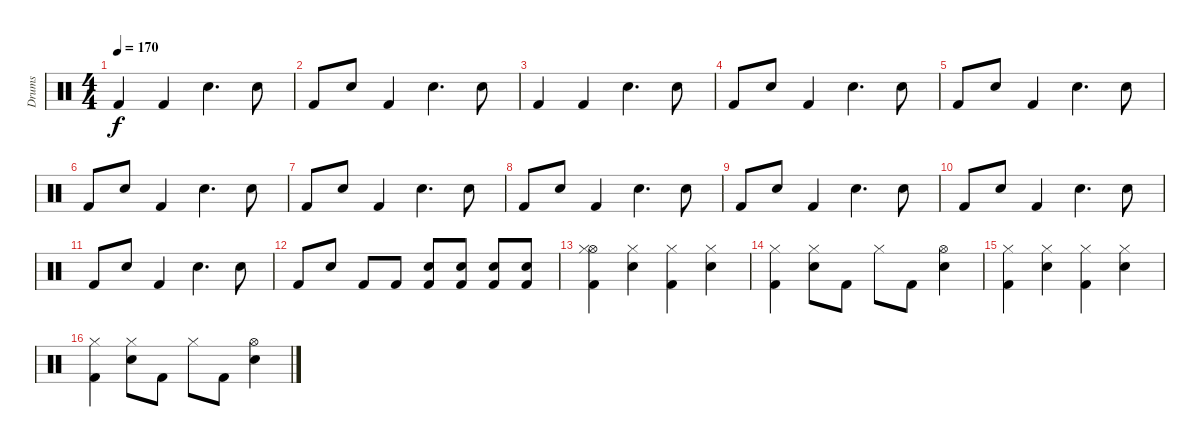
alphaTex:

\track ("Drums" "Drums") {instrument percussion}
\staff {score}
\articulation defaults
\ts (4 4)
\tempo 170
\clef neutral
\ks c "Kick (hit) 2".4{dy f} "Kick (hit) 2".4 "Snare (hit) 2".4{d} "Snare (hit) 2".8
|
"Kick (hit) 2".8 "Snare (hit) 2".8 "Kick (hit) 2".4 "Snare (hit) 2".4{d} "Snare (hit) 2".8 |
"Kick (hit) 2".4 "Kick (hit) 2".4 "Snare (hit) 2".4{d} "Snare (hit) 2".8 |
"Kick (hit) 2".8 "Snare (hit) 2".8 "Kick (hit) 2".4 "Snare (hit) 2".4{d} "Snare (hit) 2".8 |
"Kick (hit) 2".8 "Snare (hit) 2".8 "Kick (hit) 2".4 "Snare (hit) 2".4{d} "Snare (hit) 2".8 |
"Kick (hit) 2".8 "Snare (hit) 2".8 "Kick (hit) 2".4 "Snare (hit) 2".4{d} "Snare (hit) 2".8 |
"Kick (hit) 2".8 "Snare (hit) 2".8 "Kick (hit) 2".4 "Snare (hit) 2".4{d} "Snare (hit) 2".8 |
"Kick (hit) 2".8 "Snare (hit) 2".8 "Kick (hit) 2".4 "Snare (hit) 2".4{d} "Snare (hit) 2".8 |
"Kick (hit) 2".8 "Snare (hit) 2".8 "Kick (hit) 2".4 "Snare (hit) 2".4{d} "Snare (hit) 2".8 |
"Kick (hit) 2".8 "Snare (hit) 2".8 "Kick (hit) 2".4 "Snare (hit) 2".4{d} "Snare (hit) 2".8 |
"Kick (hit) 2".8 "Snare (hit) 2".8 "Kick (hit) 2".4 "Snare (hit) 2".4{d} "Snare (hit) 2".8 |
"Kick (hit) 2".8 "Snare (hit) 2".8 "Kick (hit) 2".8 "Kick (hit) 2".8 ("Snare (hit) 2" "Kick (hit) 2").8 ("Snare (hit) 2" "Kick (hit) 2").8 ("Snare (hit) 2" "Kick (hit) 2").8 ("Snare (hit) 2" "Kick (hit) 2").8 |
("Hi-Hat (open)" "Hi-Hat (closed)" "Kick (hit) 2").4 ("Hi-Hat (closed)" "Snare (hit) 2").4 ("Hi-Hat (closed)" "Kick (hit) 2").4 ("Hi-Hat (closed)" "Snare (hit) 2").4 |
("Hi-Hat (closed)" "Kick (hit) 2").4 ("Hi-Hat (closed)" "Snare (hit) 2").8 "Kick (hit) 2".8 "Hi-Hat (closed)".8 "Kick (hit) 2".8 ("Hi-Hat (open)" "Snare (hit) 2").4 |
("Hi-Hat (closed)" "Kick (hit) 2").4 ("Hi-Hat (closed)" "Snare (hit) 2").4 ("Hi-Hat (closed)" "Kick (hit) 2").4 ("Hi-Hat (closed)" "Snare (hit) 2").4 |
("Hi-Hat (closed)" "Kick (hit) 2").4 ("Hi-Hat (closed)" "Snare (hit) 2").8 "Kick (hit) 2".8 "Hi-Hat (closed)".8 "Kick (hit) 2".8 ("Hi-Hat (open)" "Snare (hit) 2").4
